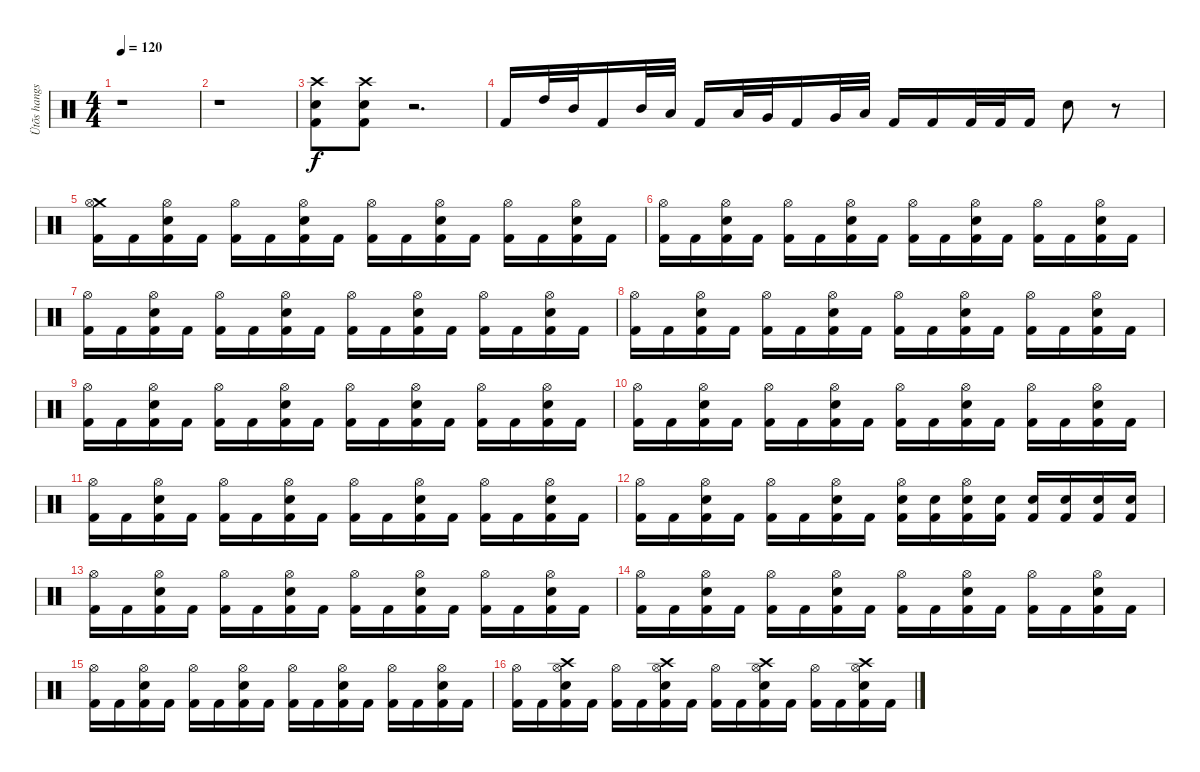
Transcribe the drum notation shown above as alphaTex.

\track ("Ütõs hangszer" "Ütõs hangs") {instrument percussion}
\staff {score}
\articulation defaults
\ts (4 4)
\tempo 120
\clef neutral
\ks c
r.1{dy f} |
r.1 |
("Crash high (hit)" "Electric Snare (hit)" "Kick (hit) 2").8 ("Crash high (hit)" "Electric Snare (hit)" "Kick (hit) 2").8 r.2{d} |
"Kick (hit) 2".16 "High Tom (hit)".32 "Mid Tom (hit)".32 "Kick (hit) 2".16 "Mid Tom (hit)".32 "Low Tom (hit)".32 "Kick (hit) 2".16 "Low Tom (hit)".32 "Very Low Tom (hit)".32 "Kick (hit) 2".16 "Very Low Tom (hit)".32 "Low Floor Tom (hit)".32 "Kick (hit) 2".16 "Kick (hit) 2".16 "Kick (hit) 2".32 "Kick (hit) 2".32 "Kick (hit) 2".16 "Electric Snare (hit)".8 r.8 |
("Crash medium (hit)" "Hi-Hat (open)" "Kick (hit) 2").16 "Kick (hit) 2".16 ("Hi-Hat (open)" "Electric Snare (hit)" "Kick (hit) 2").16 "Kick (hit) 2".16 ("Hi-Hat (open)" "Kick (hit) 2").16 "Kick (hit) 2".16 ("Hi-Hat (open)" "Electric Snare (hit)" "Kick (hit) 2").16 "Kick (hit) 2".16 ("Hi-Hat (open)" "Kick (hit) 2").16 "Kick (hit) 2".16 ("Hi-Hat (open)" "Electric Snare (hit)" "Kick (hit) 2").16 "Kick (hit) 2".16 ("Hi-Hat (open)" "Kick (hit) 2").16 "Kick (hit) 2".16 ("Hi-Hat (open)" "Electric Snare (hit)" "Kick (hit) 2").16 "Kick (hit) 2".16 |
("Hi-Hat (open)" "Kick (hit) 2").16 "Kick (hit) 2".16 ("Hi-Hat (open)" "Electric Snare (hit)" "Kick (hit) 2").16 "Kick (hit) 2".16 ("Hi-Hat (open)" "Kick (hit) 2").16 "Kick (hit) 2".16 ("Hi-Hat (open)" "Electric Snare (hit)" "Kick (hit) 2").16 "Kick (hit) 2".16 ("Hi-Hat (open)" "Kick (hit) 2").16 "Kick (hit) 2".16 ("Hi-Hat (open)" "Electric Snare (hit)" "Kick (hit) 2").16 "Kick (hit) 2".16 ("Hi-Hat (open)" "Kick (hit) 2").16 "Kick (hit) 2".16 ("Hi-Hat (open)" "Electric Snare (hit)" "Kick (hit) 2").16 "Kick (hit) 2".16 |
("Hi-Hat (open)" "Kick (hit) 2").16 "Kick (hit) 2".16 ("Hi-Hat (open)" "Electric Snare (hit)" "Kick (hit) 2").16 "Kick (hit) 2".16 ("Hi-Hat (open)" "Kick (hit) 2").16 "Kick (hit) 2".16 ("Hi-Hat (open)" "Electric Snare (hit)" "Kick (hit) 2").16 "Kick (hit) 2".16 ("Hi-Hat (open)" "Kick (hit) 2").16 "Kick (hit) 2".16 ("Hi-Hat (open)" "Electric Snare (hit)" "Kick (hit) 2").16 "Kick (hit) 2".16 ("Hi-Hat (open)" "Kick (hit) 2").16 "Kick (hit) 2".16 ("Hi-Hat (open)" "Electric Snare (hit)" "Kick (hit) 2").16 "Kick (hit) 2".16 |
("Hi-Hat (open)" "Kick (hit) 2").16 "Kick (hit) 2".16 ("Hi-Hat (open)" "Electric Snare (hit)" "Kick (hit) 2").16 "Kick (hit) 2".16 ("Hi-Hat (open)" "Kick (hit) 2").16 "Kick (hit) 2".16 ("Hi-Hat (open)" "Electric Snare (hit)" "Kick (hit) 2").16 "Kick (hit) 2".16 ("Hi-Hat (open)" "Kick (hit) 2").16 "Kick (hit) 2".16 ("Hi-Hat (open)" "Electric Snare (hit)" "Kick (hit) 2").16 "Kick (hit) 2".16 ("Hi-Hat (open)" "Kick (hit) 2").16 "Kick (hit) 2".16 ("Hi-Hat (open)" "Electric Snare (hit)" "Kick (hit) 2").16 "Kick (hit) 2".16 |
("Hi-Hat (open)" "Kick (hit) 2").16 "Kick (hit) 2".16 ("Hi-Hat (open)" "Electric Snare (hit)" "Kick (hit) 2").16 "Kick (hit) 2".16 ("Hi-Hat (open)" "Kick (hit) 2").16 "Kick (hit) 2".16 ("Hi-Hat (open)" "Electric Snare (hit)" "Kick (hit) 2").16 "Kick (hit) 2".16 ("Hi-Hat (open)" "Kick (hit) 2").16 "Kick (hit) 2".16 ("Hi-Hat (open)" "Electric Snare (hit)" "Kick (hit) 2").16 "Kick (hit) 2".16 ("Hi-Hat (open)" "Kick (hit) 2").16 "Kick (hit) 2".16 ("Hi-Hat (open)" "Electric Snare (hit)" "Kick (hit) 2").16 "Kick (hit) 2".16 |
("Hi-Hat (open)" "Kick (hit) 2").16 "Kick (hit) 2".16 ("Hi-Hat (open)" "Electric Snare (hit)" "Kick (hit) 2").16 "Kick (hit) 2".16 ("Hi-Hat (open)" "Kick (hit) 2").16 "Kick (hit) 2".16 ("Hi-Hat (open)" "Electric Snare (hit)" "Kick (hit) 2").16 "Kick (hit) 2".16 ("Hi-Hat (open)" "Kick (hit) 2").16 "Kick (hit) 2".16 ("Hi-Hat (open)" "Electric Snare (hit)" "Kick (hit) 2").16 "Kick (hit) 2".16 ("Hi-Hat (open)" "Kick (hit) 2").16 "Kick (hit) 2".16 ("Hi-Hat (open)" "Electric Snare (hit)" "Kick (hit) 2").16 "Kick (hit) 2".16 |
("Hi-Hat (open)" "Kick (hit) 2").16 "Kick (hit) 2".16 ("Hi-Hat (open)" "Electric Snare (hit)" "Kick (hit) 2").16 "Kick (hit) 2".16 ("Hi-Hat (open)" "Kick (hit) 2").16 "Kick (hit) 2".16 ("Hi-Hat (open)" "Electric Snare (hit)" "Kick (hit) 2").16 "Kick (hit) 2".16 ("Hi-Hat (open)" "Kick (hit) 2").16 "Kick (hit) 2".16 ("Hi-Hat (open)" "Electric Snare (hit)" "Kick (hit) 2").16 "Kick (hit) 2".16 ("Hi-Hat (open)" "Kick (hit) 2").16 "Kick (hit) 2".16 ("Hi-Hat (open)" "Electric Snare (hit)" "Kick (hit) 2").16 "Kick (hit) 2".16 |
("Hi-Hat (open)" "Kick (hit) 2").16 "Kick (hit) 2".16 ("Hi-Hat (open)" "Electric Snare (hit)" "Kick (hit) 2").16 "Kick (hit) 2".16 ("Hi-Hat (open)" "Kick (hit) 2").16 "Kick (hit) 2".16 ("Hi-Hat (open)" "Electric Snare (hit)" "Kick (hit) 2").16 "Kick (hit) 2".16 ("Hi-Hat (open)" "Electric Snare (hit)" "Kick (hit) 2").16 ("Electric Snare (hit)" "Kick (hit) 2").16 ("Hi-Hat (open)" "Electric Snare (hit)" "Kick (hit) 2").16 ("Electric Snare (hit)" "Kick (hit) 2").16 ("Electric Snare (hit)" "Kick (hit) 2").16 ("Electric Snare (hit)" "Kick (hit) 2").16 ("Electric Snare (hit)" "Kick (hit) 2").16 ("Electric Snare (hit)" "Kick (hit) 2").16 |
("Hi-Hat (open)" "Kick (hit) 2").16 "Kick (hit) 2".16 ("Hi-Hat (open)" "Electric Snare (hit)" "Kick (hit) 2").16 "Kick (hit) 2".16 ("Hi-Hat (open)" "Kick (hit) 2").16 "Kick (hit) 2".16 ("Hi-Hat (open)" "Electric Snare (hit)" "Kick (hit) 2").16 "Kick (hit) 2".16 ("Hi-Hat (open)" "Kick (hit) 2").16 "Kick (hit) 2".16 ("Hi-Hat (open)" "Electric Snare (hit)" "Kick (hit) 2").16 "Kick (hit) 2".16 ("Hi-Hat (open)" "Kick (hit) 2").16 "Kick (hit) 2".16 ("Hi-Hat (open)" "Electric Snare (hit)" "Kick (hit) 2").16 "Kick (hit) 2".16 |
("Hi-Hat (open)" "Kick (hit) 2").16 "Kick (hit) 2".16 ("Hi-Hat (open)" "Electric Snare (hit)" "Kick (hit) 2").16 "Kick (hit) 2".16 ("Hi-Hat (open)" "Kick (hit) 2").16 "Kick (hit) 2".16 ("Hi-Hat (open)" "Electric Snare (hit)" "Kick (hit) 2").16 "Kick (hit) 2".16 ("Hi-Hat (open)" "Kick (hit) 2").16 "Kick (hit) 2".16 ("Hi-Hat (open)" "Electric Snare (hit)" "Kick (hit) 2").16 "Kick (hit) 2".16 ("Hi-Hat (open)" "Kick (hit) 2").16 "Kick (hit) 2".16 ("Hi-Hat (open)" "Electric Snare (hit)" "Kick (hit) 2").16 "Kick (hit) 2".16 |
("Hi-Hat (open)" "Kick (hit) 2").16 "Kick (hit) 2".16 ("Hi-Hat (open)" "Electric Snare (hit)" "Kick (hit) 2").16 "Kick (hit) 2".16 ("Hi-Hat (open)" "Kick (hit) 2").16 "Kick (hit) 2".16 ("Hi-Hat (open)" "Electric Snare (hit)" "Kick (hit) 2").16 "Kick (hit) 2".16 ("Hi-Hat (open)" "Kick (hit) 2").16 "Kick (hit) 2".16 ("Hi-Hat (open)" "Electric Snare (hit)" "Kick (hit) 2").16 "Kick (hit) 2".16 ("Hi-Hat (open)" "Kick (hit) 2").16 "Kick (hit) 2".16 ("Hi-Hat (open)" "Electric Snare (hit)" "Kick (hit) 2").16 "Kick (hit) 2".16 |
("Hi-Hat (open)" "Kick (hit) 2").16 "Kick (hit) 2".16 ("Crash high (hit)" "Hi-Hat (open)" "Electric Snare (hit)" "Kick (hit) 2").16 "Kick (hit) 2".16 ("Hi-Hat (open)" "Kick (hit) 2").16 "Kick (hit) 2".16 ("Crash high (hit)" "Hi-Hat (open)" "Electric Snare (hit)" "Kick (hit) 2").16 "Kick (hit) 2".16 ("Hi-Hat (open)" "Kick (hit) 2").16 "Kick (hit) 2".16 ("Crash high (hit)" "Hi-Hat (open)" "Electric Snare (hit)" "Kick (hit) 2").16 "Kick (hit) 2".16 ("Hi-Hat (open)" "Kick (hit) 2").16 "Kick (hit) 2".16 ("Crash high (hit)" "Hi-Hat (open)" "Electric Snare (hit)" "Kick (hit) 2").16 "Kick (hit) 2".16
